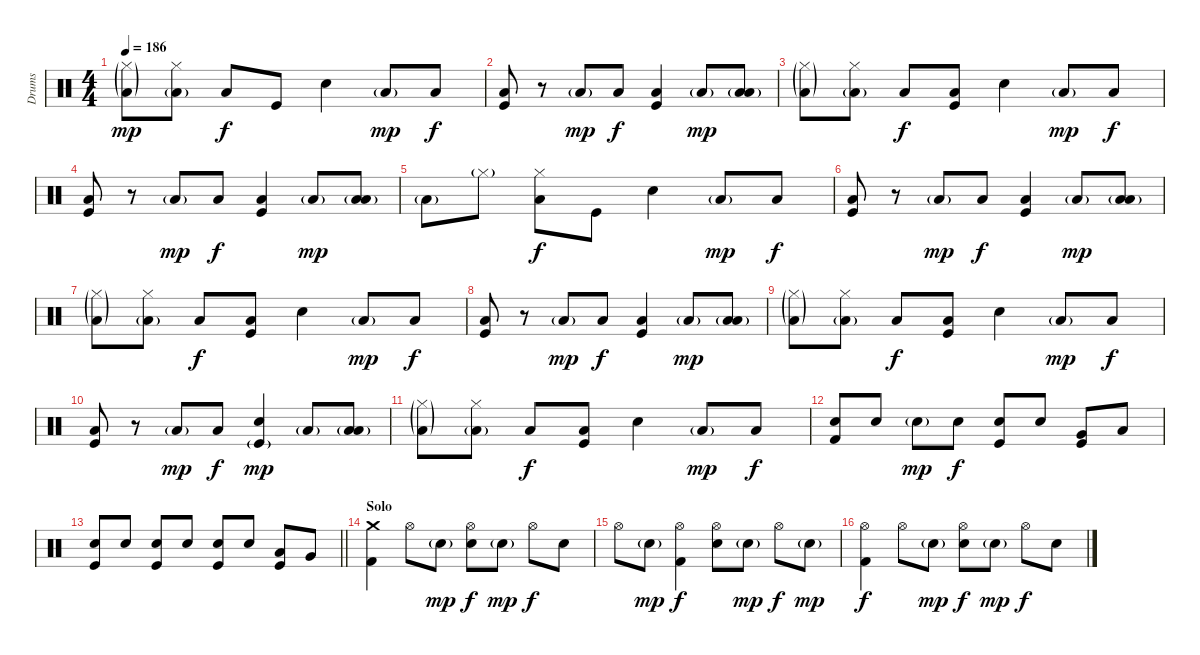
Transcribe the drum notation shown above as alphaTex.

\track ("Drums" "Drums") {instrument percussion}
\staff {score}
\articulation defaults
\ts (4 4)
\tempo 186
\clef neutral
\ks c
("Hi-Hat (closed)"{g} "Low Floor Tom (hit)"{g}).8{dy mp} ("Hi-Hat (closed)" "Low Floor Tom (hit)"{g}).8 "Low Floor Tom (hit)".8{dy f} "Kick (hit)".8 "Electric Snare (hit)".4 "Low Floor Tom (hit)"{g}.8{dy mp} "Low Floor Tom (hit)".8{dy f} |
("Low Floor Tom (hit)" "Kick (hit)").8 r.8 "Low Floor Tom (hit)"{g}.8{dy mp} "Low Floor Tom (hit)".8{dy f} ("Low Floor Tom (hit)" "Kick (hit)").4 "Low Floor Tom (hit)"{g}.8{dy mp} ("Low Tom (hit)" "Low Floor Tom (hit)"{g}).8 |
("Hi-Hat (closed)"{g} "Low Floor Tom (hit)"{g}).8 ("Hi-Hat (closed)" "Low Floor Tom (hit)"{g}).8 "Low Floor Tom (hit)".8{dy f} ("Low Tom (hit)" "Kick (hit)").8 "Electric Snare (hit)".4 "Low Floor Tom (hit)"{g}.8{dy mp} "Low Floor Tom (hit)".8{dy f} |
("Low Floor Tom (hit)" "Kick (hit)").8 r.8 "Low Floor Tom (hit)"{g}.8{dy mp} "Low Floor Tom (hit)".8{dy f} ("Low Floor Tom (hit)" "Kick (hit)").4 "Low Floor Tom (hit)"{g}.8{dy mp} ("Low Tom (hit)" "Low Floor Tom (hit)"{g}).8 |
"Low Floor Tom (hit)"{g}.8 "Hi-Hat (closed)"{g}.8 ("Hi-Hat (closed)" "Low Floor Tom (hit)").8{dy f} "Kick (hit)".8 "Electric Snare (hit)".4 "Low Floor Tom (hit)"{g}.8{dy mp} "Low Floor Tom (hit)".8{dy f} |
("Low Floor Tom (hit)" "Kick (hit)").8 r.8 "Low Floor Tom (hit)"{g}.8{dy mp} "Low Floor Tom (hit)".8{dy f} ("Low Floor Tom (hit)" "Kick (hit)").4 "Low Floor Tom (hit)"{g}.8{dy mp} ("Low Tom (hit)" "Low Floor Tom (hit)"{g}).8 |
("Hi-Hat (closed)"{g} "Low Floor Tom (hit)"{g}).8 ("Hi-Hat (closed)" "Low Floor Tom (hit)"{g}).8 "Low Floor Tom (hit)".8{dy f} ("Low Tom (hit)" "Kick (hit)").8 "Electric Snare (hit)".4 "Low Floor Tom (hit)"{g}.8{dy mp} "Low Floor Tom (hit)".8{dy f} |
("Low Floor Tom (hit)" "Kick (hit)").8 r.8 "Low Floor Tom (hit)"{g}.8{dy mp} "Low Floor Tom (hit)".8{dy f} ("Low Floor Tom (hit)" "Kick (hit)").4 "Low Floor Tom (hit)"{g}.8{dy mp} ("Low Tom (hit)" "Low Floor Tom (hit)"{g}).8 |
("Hi-Hat (closed)"{g} "Low Floor Tom (hit)"{g}).8 ("Hi-Hat (closed)" "Low Floor Tom (hit)"{g}).8 "Low Floor Tom (hit)".8{dy f} ("Low Tom (hit)" "Kick (hit)").8 "Electric Snare (hit)".4 "Low Floor Tom (hit)"{g}.8{dy mp} "Low Floor Tom (hit)".8{dy f} |
("Low Floor Tom (hit)" "Kick (hit)").8 r.8 "Low Floor Tom (hit)"{g}.8{dy mp} "Low Tom (hit)".8{dy f} ("Electric Snare (hit)" "Kick (hit)"{g}).4{dy mp} "Low Floor Tom (hit)"{g}.8 ("Low Tom (hit)" "Low Floor Tom (hit)"{g}).8 |
("Hi-Hat (closed)"{g} "Low Floor Tom (hit)"{g}).8 ("Hi-Hat (closed)" "Low Floor Tom (hit)"{g}).8 "Low Floor Tom (hit)".8{dy f} ("Low Tom (hit)" "Kick (hit)").8 "Electric Snare (hit)".4 "Low Floor Tom (hit)"{g}.8{dy mp} "Low Floor Tom (hit)".8{dy f} |
("Electric Snare (hit)" "Kick (hit) 2").8 "Electric Snare (hit)".8 "Electric Snare (hit)"{g}.8{dy mp} "Electric Snare (hit)".8{dy f} ("Electric Snare (hit)" "Kick (hit)").8 "Electric Snare (hit)".8 ("Very Low Tom (hit)" "Kick (hit)").8 "Low Floor Tom (hit)".8 |
\barLineRight lightlight
("Electric Snare (hit)" "Kick (hit)").8 "Electric Snare (hit)".8 ("Electric Snare (hit)" "Kick (hit)").8 "Electric Snare (hit)".8 ("Electric Snare (hit)" "Kick (hit)").8 "Electric Snare (hit)".8 ("Low Tom (hit)" "Kick (hit)").8 "Very Low Tom (hit)".8 |
\section ("" "Solo")
("Crash medium (hit)" "Kick (hit) 2").4 "Hi-Hat (open)".8 "Electric Snare (hit)"{g}.8{dy mp} ("Hi-Hat (open)" "Electric Snare (hit)").8{dy f} "Electric Snare (hit)"{g}.8{dy mp} "Hi-Hat (open)".8{dy f} "Electric Snare (hit)".8 |
"Hi-Hat (open)".8 "Electric Snare (hit)"{g}.8{dy mp} ("Hi-Hat (open)" "Kick (hit) 2").4{dy f} ("Hi-Hat (open)" "Electric Snare (hit)").8 "Electric Snare (hit)"{g}.8{dy mp} "Hi-Hat (open)".8{dy f} "Electric Snare (hit)"{g}.8{dy mp} |
("Hi-Hat (open)" "Kick (hit) 2").4{dy f} "Hi-Hat (open)".8 "Electric Snare (hit)"{g}.8{dy mp} ("Hi-Hat (open)" "Electric Snare (hit)").8{dy f} "Electric Snare (hit)"{g}.8{dy mp} "Hi-Hat (open)".8{dy f} "Electric Snare (hit)".8
